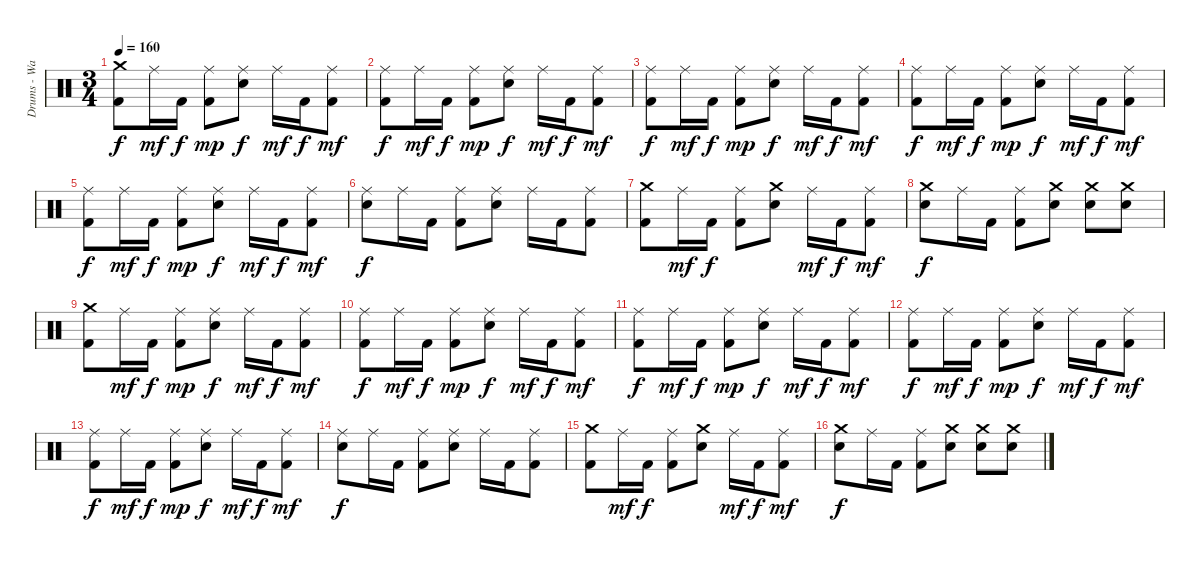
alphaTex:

\track ("Drums - Ward" "Drums - Wa") {instrument percussion}
\staff {score}
\articulation defaults
\ts (3 4)
\tempo 160
\clef neutral
\ks c
("Crash medium (hit)" "Kick (hit) 2").8{dy f} "Ride (middle)".16{dy mf} "Kick (hit) 2".16{dy f} ("Ride (middle)" "Kick (hit) 2").8{dy mp} ("Ride (middle)" "Electric Snare (hit)").8{dy f} "Ride (middle)".16{dy mf} "Kick (hit) 2".16{dy f} ("Ride (middle)" "Kick (hit) 2").8{dy mf} |
("Ride (middle)" "Kick (hit) 2").8{dy f} "Ride (middle)".16{dy mf} "Kick (hit) 2".16{dy f} ("Ride (middle)" "Kick (hit) 2").8{dy mp} ("Ride (middle)" "Electric Snare (hit)").8{dy f} "Ride (middle)".16{dy mf} "Kick (hit) 2".16{dy f} ("Ride (middle)" "Kick (hit) 2").8{dy mf} |
("Ride (middle)" "Kick (hit) 2").8{dy f} "Ride (middle)".16{dy mf} "Kick (hit) 2".16{dy f} ("Ride (middle)" "Kick (hit) 2").8{dy mp} ("Ride (middle)" "Electric Snare (hit)").8{dy f} "Ride (middle)".16{dy mf} "Kick (hit) 2".16{dy f} ("Ride (middle)" "Kick (hit) 2").8{dy mf} |
("Ride (middle)" "Kick (hit) 2").8{dy f} "Ride (middle)".16{dy mf} "Kick (hit) 2".16{dy f} ("Ride (middle)" "Kick (hit) 2").8{dy mp} ("Ride (middle)" "Electric Snare (hit)").8{dy f} "Ride (middle)".16{dy mf} "Kick (hit) 2".16{dy f} ("Ride (middle)" "Kick (hit) 2").8{dy mf} |
("Ride (middle)" "Kick (hit) 2").8{dy f} "Ride (middle)".16{dy mf} "Kick (hit) 2".16{dy f} ("Ride (middle)" "Kick (hit) 2").8{dy mp} ("Ride (middle)" "Electric Snare (hit)").8{dy f} "Ride (middle)".16{dy mf} "Kick (hit) 2".16{dy f} ("Ride (middle)" "Kick (hit) 2").8{dy mf} |
("Ride (middle)" "Electric Snare (hit)").8{dy f} "Ride (middle)".16 "Kick (hit) 2".16 ("Ride (middle)" "Kick (hit) 2").8 ("Ride (middle)" "Electric Snare (hit)").8 "Ride (middle)".16 "Kick (hit) 2".16 ("Ride (middle)" "Kick (hit) 2").8 |
("Crash medium (hit)" "Kick (hit) 2").8 "Ride (middle)".16{dy mf} "Kick (hit) 2".16{dy f} ("Ride (middle)" "Kick (hit) 2").8 ("Crash medium (hit)" "Electric Snare (hit)").8 "Ride (middle)".16{dy mf} "Kick (hit) 2".16{dy f} ("Ride (middle)" "Kick (hit) 2").8{dy mf} |
("Crash medium (hit)" "Electric Snare (hit)").8{dy f} "Ride (middle)".16 "Kick (hit) 2".16 ("Ride (middle)" "Kick (hit) 2").8 ("Crash medium (hit)" "Electric Snare (hit)").8 ("Crash medium (hit)" "Electric Snare (hit)").8 ("Crash medium (hit)" "Electric Snare (hit)").8 |
("Crash medium (hit)" "Kick (hit) 2").8 "Ride (middle)".16{dy mf} "Kick (hit) 2".16{dy f} ("Ride (middle)" "Kick (hit) 2").8{dy mp} ("Ride (middle)" "Electric Snare (hit)").8{dy f} "Ride (middle)".16{dy mf} "Kick (hit) 2".16{dy f} ("Ride (middle)" "Kick (hit) 2").8{dy mf} |
("Ride (middle)" "Kick (hit) 2").8{dy f} "Ride (middle)".16{dy mf} "Kick (hit) 2".16{dy f} ("Ride (middle)" "Kick (hit) 2").8{dy mp} ("Ride (middle)" "Electric Snare (hit)").8{dy f} "Ride (middle)".16{dy mf} "Kick (hit) 2".16{dy f} ("Ride (middle)" "Kick (hit) 2").8{dy mf} |
("Ride (middle)" "Kick (hit) 2").8{dy f} "Ride (middle)".16{dy mf} "Kick (hit) 2".16{dy f} ("Ride (middle)" "Kick (hit) 2").8{dy mp} ("Ride (middle)" "Electric Snare (hit)").8{dy f} "Ride (middle)".16{dy mf} "Kick (hit) 2".16{dy f} ("Ride (middle)" "Kick (hit) 2").8{dy mf} |
("Ride (middle)" "Kick (hit) 2").8{dy f} "Ride (middle)".16{dy mf} "Kick (hit) 2".16{dy f} ("Ride (middle)" "Kick (hit) 2").8{dy mp} ("Ride (middle)" "Electric Snare (hit)").8{dy f} "Ride (middle)".16{dy mf} "Kick (hit) 2".16{dy f} ("Ride (middle)" "Kick (hit) 2").8{dy mf} |
("Ride (middle)" "Kick (hit) 2").8{dy f} "Ride (middle)".16{dy mf} "Kick (hit) 2".16{dy f} ("Ride (middle)" "Kick (hit) 2").8{dy mp} ("Ride (middle)" "Electric Snare (hit)").8{dy f} "Ride (middle)".16{dy mf} "Kick (hit) 2".16{dy f} ("Ride (middle)" "Kick (hit) 2").8{dy mf} |
("Ride (middle)" "Electric Snare (hit)").8{dy f} "Ride (middle)".16 "Kick (hit) 2".16 ("Ride (middle)" "Kick (hit) 2").8 ("Ride (middle)" "Electric Snare (hit)").8 "Ride (middle)".16 "Kick (hit) 2".16 ("Ride (middle)" "Kick (hit) 2").8 |
("Crash medium (hit)" "Kick (hit) 2").8 "Ride (middle)".16{dy mf} "Kick (hit) 2".16{dy f} ("Ride (middle)" "Kick (hit) 2").8 ("Crash medium (hit)" "Electric Snare (hit)").8 "Ride (middle)".16{dy mf} "Kick (hit) 2".16{dy f} ("Ride (middle)" "Kick (hit) 2").8{dy mf} |
("Crash medium (hit)" "Electric Snare (hit)").8{dy f} "Ride (middle)".16 "Kick (hit) 2".16 ("Ride (middle)" "Kick (hit) 2").8 ("Crash medium (hit)" "Electric Snare (hit)").8 ("Crash medium (hit)" "Electric Snare (hit)").8 ("Crash medium (hit)" "Electric Snare (hit)").8
